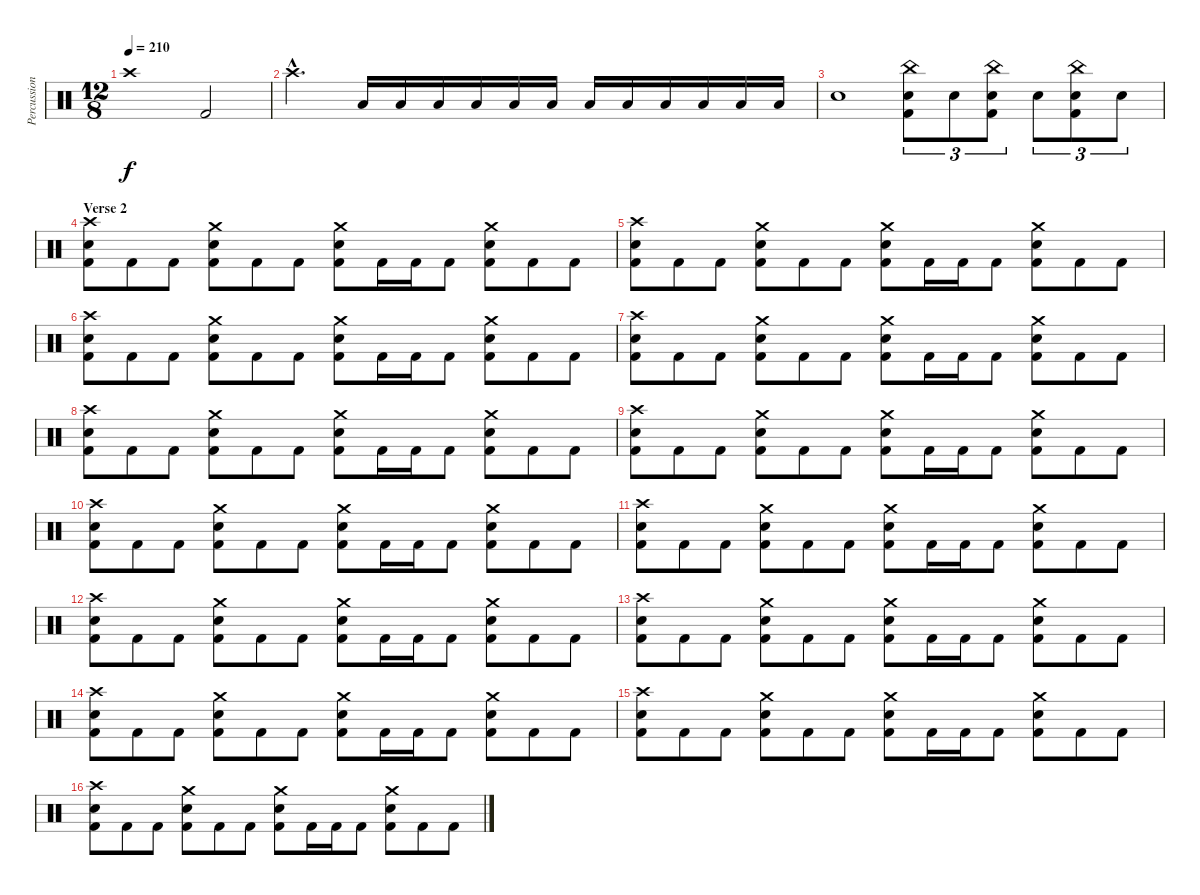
\track ("Percussion" "Percussion") {instrument percussion}
\staff {score}
\articulation defaults
\ts (12 8)
\tempo 210
\clef neutral
\ks c "Crash high (hit)".1{dy f} "Kick (hit) 2".2
|
"Crash high (hit)"{hac}.2{d} "Low Floor Tom (hit)".16 "Low Floor Tom (hit)".16 "Low Floor Tom (hit)".16 "Low Floor Tom (hit)".16 "Low Floor Tom (hit)".16 "Low Floor Tom (hit)".16 "Low Floor Tom (hit)".16 "Low Floor Tom (hit)".16 "Low Floor Tom (hit)".16 "Low Floor Tom (hit)".16 "Low Floor Tom (hit)".16 "Low Floor Tom (hit)".16 |
"Electric Snare (hit)".1 ("China (hit)" "Electric Snare (hit)" "Kick (hit) 2").8{tu (3 2)} "Electric Snare (hit)".8{tu (3 2)} ("China (hit)" "Electric Snare (hit)" "Kick (hit) 2").8{tu (3 2)} "Electric Snare (hit)".8{tu (3 2)} ("China (hit)" "Electric Snare (hit)" "Kick (hit) 2").8{tu (3 2)} "Electric Snare (hit)".8{tu (3 2)} |
\section ("" "Verse 2")
("Crash high (hit)" "Snare (hit) 2" "Kick (hit) 2").8 "Kick (hit) 2".8 "Kick (hit) 2".8 ("Crash medium (hit)" "Snare (hit) 2" "Kick (hit) 2").8 "Kick (hit) 2".8 "Kick (hit) 2".8 ("Crash medium (hit)" "Snare (hit) 2" "Kick (hit) 2").8 "Kick (hit) 2".16 "Kick (hit) 2".16 "Kick (hit) 2".8 ("Crash medium (hit)" "Snare (hit) 2" "Kick (hit) 2").8 "Kick (hit) 2".8 "Kick (hit) 2".8 |
("Crash high (hit)" "Snare (hit) 2" "Kick (hit) 2").8 "Kick (hit) 2".8 "Kick (hit) 2".8 ("Crash medium (hit)" "Snare (hit) 2" "Kick (hit) 2").8 "Kick (hit) 2".8 "Kick (hit) 2".8 ("Crash medium (hit)" "Snare (hit) 2" "Kick (hit) 2").8 "Kick (hit) 2".16 "Kick (hit) 2".16 "Kick (hit) 2".8 ("Crash medium (hit)" "Snare (hit) 2" "Kick (hit) 2").8 "Kick (hit) 2".8 "Kick (hit) 2".8 |
("Crash high (hit)" "Snare (hit) 2" "Kick (hit) 2").8 "Kick (hit) 2".8 "Kick (hit) 2".8 ("Crash medium (hit)" "Snare (hit) 2" "Kick (hit) 2").8 "Kick (hit) 2".8 "Kick (hit) 2".8 ("Crash medium (hit)" "Snare (hit) 2" "Kick (hit) 2").8 "Kick (hit) 2".16 "Kick (hit) 2".16 "Kick (hit) 2".8 ("Crash medium (hit)" "Snare (hit) 2" "Kick (hit) 2").8 "Kick (hit) 2".8 "Kick (hit) 2".8 |
("Crash high (hit)" "Snare (hit) 2" "Kick (hit) 2").8 "Kick (hit) 2".8 "Kick (hit) 2".8 ("Crash medium (hit)" "Snare (hit) 2" "Kick (hit) 2").8 "Kick (hit) 2".8 "Kick (hit) 2".8 ("Crash medium (hit)" "Snare (hit) 2" "Kick (hit) 2").8 "Kick (hit) 2".16 "Kick (hit) 2".16 "Kick (hit) 2".8 ("Crash medium (hit)" "Snare (hit) 2" "Kick (hit) 2").8 "Kick (hit) 2".8 "Kick (hit) 2".8 |
("Crash high (hit)" "Snare (hit) 2" "Kick (hit) 2").8 "Kick (hit) 2".8 "Kick (hit) 2".8 ("Crash medium (hit)" "Snare (hit) 2" "Kick (hit) 2").8 "Kick (hit) 2".8 "Kick (hit) 2".8 ("Crash medium (hit)" "Snare (hit) 2" "Kick (hit) 2").8 "Kick (hit) 2".16 "Kick (hit) 2".16 "Kick (hit) 2".8 ("Crash medium (hit)" "Snare (hit) 2" "Kick (hit) 2").8 "Kick (hit) 2".8 "Kick (hit) 2".8 |
("Crash high (hit)" "Snare (hit) 2" "Kick (hit) 2").8 "Kick (hit) 2".8 "Kick (hit) 2".8 ("Crash medium (hit)" "Snare (hit) 2" "Kick (hit) 2").8 "Kick (hit) 2".8 "Kick (hit) 2".8 ("Crash medium (hit)" "Snare (hit) 2" "Kick (hit) 2").8 "Kick (hit) 2".16 "Kick (hit) 2".16 "Kick (hit) 2".8 ("Crash medium (hit)" "Snare (hit) 2" "Kick (hit) 2").8 "Kick (hit) 2".8 "Kick (hit) 2".8 |
("Crash high (hit)" "Snare (hit) 2" "Kick (hit) 2").8 "Kick (hit) 2".8 "Kick (hit) 2".8 ("Crash medium (hit)" "Snare (hit) 2" "Kick (hit) 2").8 "Kick (hit) 2".8 "Kick (hit) 2".8 ("Crash medium (hit)" "Snare (hit) 2" "Kick (hit) 2").8 "Kick (hit) 2".16 "Kick (hit) 2".16 "Kick (hit) 2".8 ("Crash medium (hit)" "Snare (hit) 2" "Kick (hit) 2").8 "Kick (hit) 2".8 "Kick (hit) 2".8 |
("Crash high (hit)" "Snare (hit) 2" "Kick (hit) 2").8 "Kick (hit) 2".8 "Kick (hit) 2".8 ("Crash medium (hit)" "Snare (hit) 2" "Kick (hit) 2").8 "Kick (hit) 2".8 "Kick (hit) 2".8 ("Crash medium (hit)" "Snare (hit) 2" "Kick (hit) 2").8 "Kick (hit) 2".16 "Kick (hit) 2".16 "Kick (hit) 2".8 ("Crash medium (hit)" "Snare (hit) 2" "Kick (hit) 2").8 "Kick (hit) 2".8 "Kick (hit) 2".8 |
("Crash high (hit)" "Snare (hit) 2" "Kick (hit) 2").8 "Kick (hit) 2".8 "Kick (hit) 2".8 ("Crash medium (hit)" "Snare (hit) 2" "Kick (hit) 2").8 "Kick (hit) 2".8 "Kick (hit) 2".8 ("Crash medium (hit)" "Snare (hit) 2" "Kick (hit) 2").8 "Kick (hit) 2".16 "Kick (hit) 2".16 "Kick (hit) 2".8 ("Crash medium (hit)" "Snare (hit) 2" "Kick (hit) 2").8 "Kick (hit) 2".8 "Kick (hit) 2".8 |
("Crash high (hit)" "Snare (hit) 2" "Kick (hit) 2").8 "Kick (hit) 2".8 "Kick (hit) 2".8 ("Crash medium (hit)" "Snare (hit) 2" "Kick (hit) 2").8 "Kick (hit) 2".8 "Kick (hit) 2".8 ("Crash medium (hit)" "Snare (hit) 2" "Kick (hit) 2").8 "Kick (hit) 2".16 "Kick (hit) 2".16 "Kick (hit) 2".8 ("Crash medium (hit)" "Snare (hit) 2" "Kick (hit) 2").8 "Kick (hit) 2".8 "Kick (hit) 2".8 |
("Crash high (hit)" "Snare (hit) 2" "Kick (hit) 2").8 "Kick (hit) 2".8 "Kick (hit) 2".8 ("Crash medium (hit)" "Snare (hit) 2" "Kick (hit) 2").8 "Kick (hit) 2".8 "Kick (hit) 2".8 ("Crash medium (hit)" "Snare (hit) 2" "Kick (hit) 2").8 "Kick (hit) 2".16 "Kick (hit) 2".16 "Kick (hit) 2".8 ("Crash medium (hit)" "Snare (hit) 2" "Kick (hit) 2").8 "Kick (hit) 2".8 "Kick (hit) 2".8 |
("Crash high (hit)" "Snare (hit) 2" "Kick (hit) 2").8 "Kick (hit) 2".8 "Kick (hit) 2".8 ("Crash medium (hit)" "Snare (hit) 2" "Kick (hit) 2").8 "Kick (hit) 2".8 "Kick (hit) 2".8 ("Crash medium (hit)" "Snare (hit) 2" "Kick (hit) 2").8 "Kick (hit) 2".16 "Kick (hit) 2".16 "Kick (hit) 2".8 ("Crash medium (hit)" "Snare (hit) 2" "Kick (hit) 2").8 "Kick (hit) 2".8 "Kick (hit) 2".8 |
("Crash high (hit)" "Snare (hit) 2" "Kick (hit) 2").8 "Kick (hit) 2".8 "Kick (hit) 2".8 ("Crash medium (hit)" "Snare (hit) 2" "Kick (hit) 2").8 "Kick (hit) 2".8 "Kick (hit) 2".8 ("Crash medium (hit)" "Snare (hit) 2" "Kick (hit) 2").8 "Kick (hit) 2".16 "Kick (hit) 2".16 "Kick (hit) 2".8 ("Crash medium (hit)" "Snare (hit) 2" "Kick (hit) 2").8 "Kick (hit) 2".8 "Kick (hit) 2".8
